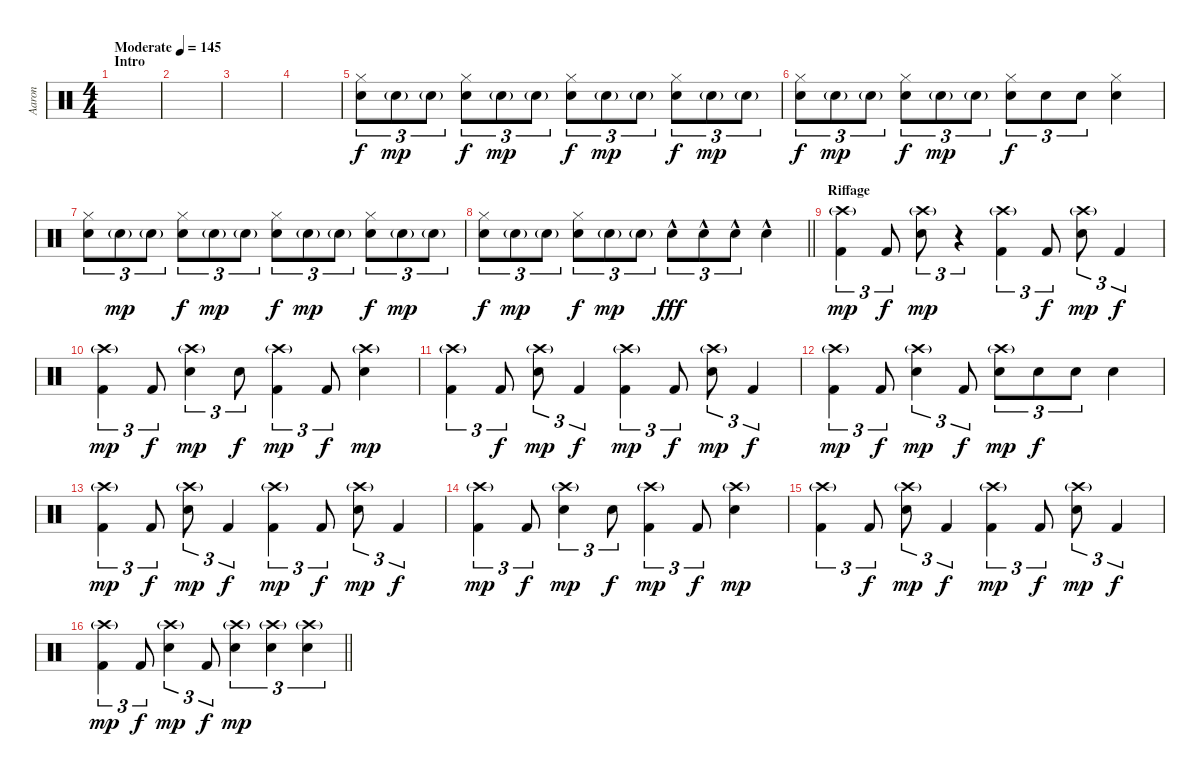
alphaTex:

\track ("Aaron" "Aaron") {instrument percussion}
\staff {score}
\articulation defaults
\ts (4 4)
\section ("" "Intro")
\tempo (145 "Moderate")
\clef neutral
\ks c
|
|
|
|
("Hi-Hat (closed)" "Electric Snare (hit)").8{tu (3 2)} "Electric Snare (hit)"{g}.8{tu (3 2) dy mp} "Electric Snare (hit)"{g}.8{tu (3 2)} ("Hi-Hat (closed)" "Electric Snare (hit)").8{tu (3 2) dy f} "Electric Snare (hit)"{g}.8{tu (3 2) dy mp} "Electric Snare (hit)"{g}.8{tu (3 2)} ("Hi-Hat (closed)" "Electric Snare (hit)").8{tu (3 2) dy f} "Electric Snare (hit)"{g}.8{tu (3 2) dy mp} "Electric Snare (hit)"{g}.8{tu (3 2)} ("Hi-Hat (closed)" "Electric Snare (hit)").8{tu (3 2) dy f} "Electric Snare (hit)"{g}.8{tu (3 2) dy mp} "Electric Snare (hit)"{g}.8{tu (3 2)} |
("Hi-Hat (closed)" "Electric Snare (hit)").8{tu (3 2) dy f} "Electric Snare (hit)"{g}.8{tu (3 2) dy mp} "Electric Snare (hit)"{g}.8{tu (3 2)} ("Hi-Hat (closed)" "Electric Snare (hit)").8{tu (3 2) dy f} "Electric Snare (hit)"{g}.8{tu (3 2) dy mp} "Electric Snare (hit)"{g}.8{tu (3 2)} ("Hi-Hat (closed)" "Electric Snare (hit)").8{tu (3 2) dy f} "Electric Snare (hit)".8{tu (3 2)} "Electric Snare (hit)".8{tu (3 2)} ("Hi-Hat (closed)" "Electric Snare (hit)").4 |
("Hi-Hat (closed)" "Electric Snare (hit)").8{tu (3 2)} "Electric Snare (hit)"{g}.8{tu (3 2) dy mp} "Electric Snare (hit)"{g}.8{tu (3 2)} ("Hi-Hat (closed)" "Electric Snare (hit)").8{tu (3 2) dy f} "Electric Snare (hit)"{g}.8{tu (3 2) dy mp} "Electric Snare (hit)"{g}.8{tu (3 2)} ("Hi-Hat (closed)" "Electric Snare (hit)").8{tu (3 2) dy f} "Electric Snare (hit)"{g}.8{tu (3 2) dy mp} "Electric Snare (hit)"{g}.8{tu (3 2)} ("Hi-Hat (closed)" "Electric Snare (hit)").8{tu (3 2) dy f} "Electric Snare (hit)"{g}.8{tu (3 2) dy mp} "Electric Snare (hit)"{g}.8{tu (3 2)} |
\barLineRight lightlight
("Hi-Hat (closed)" "Electric Snare (hit)").8{tu (3 2) dy f} "Electric Snare (hit)"{g}.8{tu (3 2) dy mp} "Electric Snare (hit)"{g}.8{tu (3 2)} ("Hi-Hat (closed)" "Electric Snare (hit)").8{tu (3 2) dy f} "Electric Snare (hit)"{g}.8{tu (3 2) dy mp} "Electric Snare (hit)"{g}.8{tu (3 2)} "Electric Snare (hit)"{hac}.8{tu (3 2) dy fff} "Electric Snare (hit)"{hac}.8{tu (3 2)} "Electric Snare (hit)"{hac}.8{tu (3 2)} "Electric Snare (hit)"{hac}.4 |
\section ("" "Riffage")
("Crash high (hit)"{g} "Kick (hit) 2").4{tu (3 2) dy mp} "Kick (hit) 2".8{tu (3 2) dy f} ("Crash high (hit)"{g} "Electric Snare (hit)").8{tu (3 2) dy mp} r.4{tu (3 2)} ("Crash high (hit)"{g} "Kick (hit) 2").4{tu (3 2)} "Kick (hit) 2".8{tu (3 2) dy f} ("Crash high (hit)"{g} "Electric Snare (hit)").8{tu (3 2) dy mp} "Kick (hit) 2".4{tu (3 2) dy f} |
("Crash high (hit)"{g} "Kick (hit) 2").4{tu (3 2) dy mp} "Kick (hit) 2".8{tu (3 2) dy f} ("Crash high (hit)"{g} "Electric Snare (hit)").4{tu (3 2) dy mp} "Electric Snare (hit)".8{tu (3 2) dy f} ("Crash high (hit)"{g} "Kick (hit) 2").4{tu (3 2) dy mp} "Kick (hit) 2".8{tu (3 2) dy f} ("Crash high (hit)"{g} "Electric Snare (hit)").4{dy mp} |
("Crash high (hit)"{g} "Kick (hit) 2").4{tu (3 2)} "Kick (hit) 2".8{tu (3 2) dy f} ("Crash high (hit)"{g} "Electric Snare (hit)").8{tu (3 2) dy mp} "Kick (hit) 2".4{tu (3 2) dy f} ("Crash high (hit)"{g} "Kick (hit) 2").4{tu (3 2) dy mp} "Kick (hit) 2".8{tu (3 2) dy f} ("Crash high (hit)"{g} "Electric Snare (hit)").8{tu (3 2) dy mp} "Kick (hit) 2".4{tu (3 2) dy f} |
("Crash high (hit)"{g} "Kick (hit) 2").4{tu (3 2) dy mp} "Kick (hit) 2".8{tu (3 2) dy f} ("Crash high (hit)"{g} "Electric Snare (hit)").4{tu (3 2) dy mp} "Kick (hit) 2".8{tu (3 2) dy f} ("Crash high (hit)"{g} "Electric Snare (hit)").8{tu (3 2) dy mp} "Electric Snare (hit)".8{tu (3 2) dy f} "Electric Snare (hit)".8{tu (3 2)} "Electric Snare (hit)".4 |
("Crash high (hit)"{g} "Kick (hit) 2").4{tu (3 2) dy mp} "Kick (hit) 2".8{tu (3 2) dy f} ("Crash high (hit)"{g} "Electric Snare (hit)").8{tu (3 2) dy mp} "Kick (hit) 2".4{tu (3 2) dy f} ("Crash high (hit)"{g} "Kick (hit) 2").4{tu (3 2) dy mp} "Kick (hit) 2".8{tu (3 2) dy f} ("Crash high (hit)"{g} "Electric Snare (hit)").8{tu (3 2) dy mp} "Kick (hit) 2".4{tu (3 2) dy f} |
("Crash high (hit)"{g} "Kick (hit) 2").4{tu (3 2) dy mp} "Kick (hit) 2".8{tu (3 2) dy f} ("Crash high (hit)"{g} "Electric Snare (hit)").4{tu (3 2) dy mp} "Electric Snare (hit)".8{tu (3 2) dy f} ("Crash high (hit)"{g} "Kick (hit) 2").4{tu (3 2) dy mp} "Kick (hit) 2".8{tu (3 2) dy f} ("Crash high (hit)"{g} "Electric Snare (hit)").4{dy mp} |
("Crash high (hit)"{g} "Kick (hit) 2").4{tu (3 2)} "Kick (hit) 2".8{tu (3 2) dy f} ("Crash high (hit)"{g} "Electric Snare (hit)").8{tu (3 2) dy mp} "Kick (hit) 2".4{tu (3 2) dy f} ("Crash high (hit)"{g} "Kick (hit) 2").4{tu (3 2) dy mp} "Kick (hit) 2".8{tu (3 2) dy f} ("Crash high (hit)"{g} "Electric Snare (hit)").8{tu (3 2) dy mp} "Kick (hit) 2".4{tu (3 2) dy f} |
\barLineRight lightlight
("Crash high (hit)"{g} "Kick (hit) 2").4{tu (3 2) dy mp} "Kick (hit) 2".8{tu (3 2) dy f} ("Crash high (hit)"{g} "Electric Snare (hit)").4{tu (3 2) dy mp} "Kick (hit) 2".8{tu (3 2) dy f} ("Crash high (hit)"{g} "Electric Snare (hit)").4{tu (3 2) dy mp} ("Crash high (hit)"{g} "Electric Snare (hit)").4{tu (3 2)} ("Crash high (hit)"{g} "Electric Snare (hit)").4{tu (3 2)}
